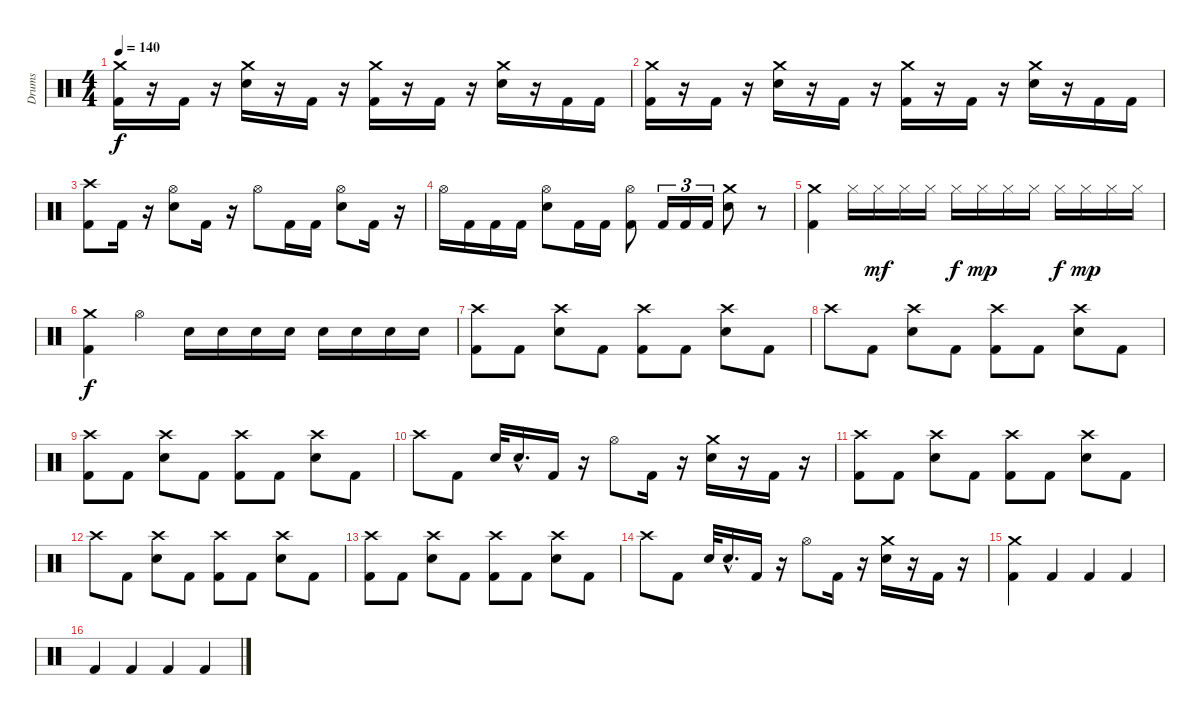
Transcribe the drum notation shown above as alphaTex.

\track ("Drums" "Drums") {instrument percussion}
\staff {score}
\articulation defaults
\ts (4 4)
\tempo 140
\clef neutral
\ks c
("Crash medium (hit)" "Kick (hit) 2").16{dy f} r.16 "Kick (hit) 2".16 r.16 ("Crash medium (hit)" "Electric Snare (hit)").16 r.16 "Kick (hit) 2".16 r.16 ("Kick (hit) 2" "Crash medium (hit)").16 r.16 "Kick (hit) 2".16 r.16 ("Crash medium (hit)" "Electric Snare (hit)").16 r.16 "Kick (hit) 2".16 "Kick (hit) 2".16 |
("Crash medium (hit)" "Kick (hit) 2").16 r.16 "Kick (hit) 2".16 r.16 ("Crash medium (hit)" "Electric Snare (hit)").16 r.16 "Kick (hit) 2".16 r.16 ("Kick (hit) 2" "Crash medium (hit)").16 r.16 "Kick (hit) 2".16 r.16 ("Crash medium (hit)" "Electric Snare (hit)").16 r.16 "Kick (hit) 2".16 "Kick (hit) 2".16 |
("Kick (hit) 2" "Crash high (hit)").8 "Kick (hit) 2".16 r.16 ("Electric Snare (hit)" "Hi-Hat (open)").8 "Kick (hit) 2".16 r.16 "Hi-Hat (open)".8 "Kick (hit) 2".16 "Kick (hit) 2".16 ("Electric Snare (hit)" "Hi-Hat (open)").8 "Kick (hit) 2".16 r.16 |
"Hi-Hat (open)".16 "Kick (hit) 2".16 "Kick (hit) 2".16 "Kick (hit) 2".16 ("Electric Snare (hit)" "Hi-Hat (open)").8 "Kick (hit) 2".16 "Kick (hit) 2".16 ("Kick (hit) 2" "Hi-Hat (open)").8 "Kick (hit) 2".16{tu (3 2)} "Kick (hit) 2".16{tu (3 2)} "Kick (hit) 2".16{tu (3 2)} ("Electric Snare (hit)" "Crash medium (hit)").8 r.8 |
("Crash medium (hit)" "Kick (hit) 2").4 "Hi-Hat (closed)".16 "Hi-Hat (closed)".16{dy mf} "Hi-Hat (closed)".16 "Hi-Hat (closed)".16 "Hi-Hat (closed)".16{dy f} "Hi-Hat (closed)".16{dy mp} "Hi-Hat (closed)".16 "Hi-Hat (closed)".16 "Hi-Hat (closed)".16{dy f} "Hi-Hat (closed)".16{dy mp} "Hi-Hat (closed)".16 "Hi-Hat (closed)".16 |
("Kick (hit) 2" "Crash medium (hit)").4{dy f} "Hi-Hat (open)".4 "Electric Snare (hit)".16 "Electric Snare (hit)".16 "Electric Snare (hit)".16 "Electric Snare (hit)".16 "Electric Snare (hit)".16 "Electric Snare (hit)".16 "Electric Snare (hit)".16 "Electric Snare (hit)".16 |
("Kick (hit) 2" "Crash high (hit)").8 "Kick (hit) 2".8 ("Electric Snare (hit)" "Crash high (hit)").8 "Kick (hit) 2".8 ("Kick (hit) 2" "Crash high (hit)").8 "Kick (hit) 2".8 ("Electric Snare (hit)" "Crash high (hit)").8 "Kick (hit) 2".8 |
"Crash high (hit)".8 "Kick (hit) 2".8 ("Electric Snare (hit)" "Crash high (hit)").8 "Kick (hit) 2".8 ("Kick (hit) 2" "Crash high (hit)").8 "Kick (hit) 2".8 ("Electric Snare (hit)" "Crash high (hit)").8 "Kick (hit) 2".8 |
("Kick (hit) 2" "Crash high (hit)").8 "Kick (hit) 2".8 ("Electric Snare (hit)" "Crash high (hit)").8 "Kick (hit) 2".8 ("Kick (hit) 2" "Crash high (hit)").8 "Kick (hit) 2".8 ("Electric Snare (hit)" "Crash high (hit)").8 "Kick (hit) 2".8 |
"Crash high (hit)".8 "Kick (hit) 2".8 "Electric Snare (hit)".32 "Electric Snare (hit)"{hac}.16{d} "Kick (hit) 2".16 r.16 "Hi-Hat (open)".8 "Kick (hit) 2".16 r.16 ("Crash medium (hit)" "Electric Snare (hit)").16 r.16 "Kick (hit) 2".16 r.16 |
("Kick (hit) 2" "Crash high (hit)").8 "Kick (hit) 2".8 ("Electric Snare (hit)" "Crash high (hit)").8 "Kick (hit) 2".8 ("Kick (hit) 2" "Crash high (hit)").8 "Kick (hit) 2".8 ("Electric Snare (hit)" "Crash high (hit)").8 "Kick (hit) 2".8 |
"Crash high (hit)".8 "Kick (hit) 2".8 ("Electric Snare (hit)" "Crash high (hit)").8 "Kick (hit) 2".8 ("Kick (hit) 2" "Crash high (hit)").8 "Kick (hit) 2".8 ("Electric Snare (hit)" "Crash high (hit)").8 "Kick (hit) 2".8 |
("Kick (hit) 2" "Crash high (hit)").8 "Kick (hit) 2".8 ("Electric Snare (hit)" "Crash high (hit)").8 "Kick (hit) 2".8 ("Kick (hit) 2" "Crash high (hit)").8 "Kick (hit) 2".8 ("Electric Snare (hit)" "Crash high (hit)").8 "Kick (hit) 2".8 |
"Crash high (hit)".8 "Kick (hit) 2".8 "Electric Snare (hit)".32 "Electric Snare (hit)"{hac}.16{d} "Kick (hit) 2".16 r.16 "Hi-Hat (open)".8 "Kick (hit) 2".16 r.16 ("Crash medium (hit)" "Electric Snare (hit)").16 r.16 "Kick (hit) 2".16 r.16 |
("Kick (hit) 2" "Crash medium (hit)").4 "Kick (hit) 2".4 "Kick (hit) 2".4 "Kick (hit) 2".4 |
"Kick (hit) 2".4 "Kick (hit) 2".4 "Kick (hit) 2".4 "Kick (hit) 2".4
